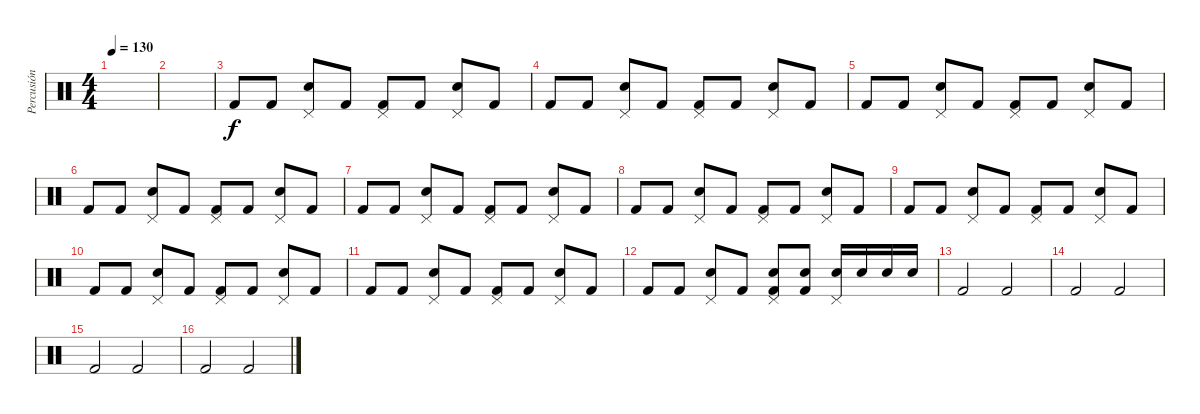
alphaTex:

\track ("Percusión" "Percusión") {instrument percussion}
\staff {score}
\articulation defaults
\ts (4 4)
\tempo 130
\clef neutral
\ks c
|
|
"Kick (hit) 2".8 "Kick (hit) 2".8 ("Electric Snare (hit)" "Pedal Hi-Hat (hit)").8 "Kick (hit) 2".8 ("Kick (hit) 2" "Pedal Hi-Hat (hit)").8 "Kick (hit) 2".8 ("Electric Snare (hit)" "Pedal Hi-Hat (hit)").8 "Kick (hit) 2".8 |
"Kick (hit) 2".8 "Kick (hit) 2".8 ("Electric Snare (hit)" "Pedal Hi-Hat (hit)").8 "Kick (hit) 2".8 ("Kick (hit) 2" "Pedal Hi-Hat (hit)").8 "Kick (hit) 2".8 ("Electric Snare (hit)" "Pedal Hi-Hat (hit)").8 "Kick (hit) 2".8 |
"Kick (hit) 2".8 "Kick (hit) 2".8 ("Electric Snare (hit)" "Pedal Hi-Hat (hit)").8 "Kick (hit) 2".8 ("Kick (hit) 2" "Pedal Hi-Hat (hit)").8 "Kick (hit) 2".8 ("Electric Snare (hit)" "Pedal Hi-Hat (hit)").8 "Kick (hit) 2".8 |
"Kick (hit) 2".8 "Kick (hit) 2".8 ("Electric Snare (hit)" "Pedal Hi-Hat (hit)").8 "Kick (hit) 2".8 ("Kick (hit) 2" "Pedal Hi-Hat (hit)").8 "Kick (hit) 2".8 ("Electric Snare (hit)" "Pedal Hi-Hat (hit)").8 "Kick (hit) 2".8 |
"Kick (hit) 2".8 "Kick (hit) 2".8 ("Electric Snare (hit)" "Pedal Hi-Hat (hit)").8 "Kick (hit) 2".8 ("Kick (hit) 2" "Pedal Hi-Hat (hit)").8 "Kick (hit) 2".8 ("Electric Snare (hit)" "Pedal Hi-Hat (hit)").8 "Kick (hit) 2".8 |
"Kick (hit) 2".8 "Kick (hit) 2".8 ("Electric Snare (hit)" "Pedal Hi-Hat (hit)").8 "Kick (hit) 2".8 ("Kick (hit) 2" "Pedal Hi-Hat (hit)").8 "Kick (hit) 2".8 ("Electric Snare (hit)" "Pedal Hi-Hat (hit)").8 "Kick (hit) 2".8 |
"Kick (hit) 2".8 "Kick (hit) 2".8 ("Electric Snare (hit)" "Pedal Hi-Hat (hit)").8 "Kick (hit) 2".8 ("Kick (hit) 2" "Pedal Hi-Hat (hit)").8 "Kick (hit) 2".8 ("Electric Snare (hit)" "Pedal Hi-Hat (hit)").8 "Kick (hit) 2".8 |
"Kick (hit) 2".8 "Kick (hit) 2".8 ("Electric Snare (hit)" "Pedal Hi-Hat (hit)").8 "Kick (hit) 2".8 ("Kick (hit) 2" "Pedal Hi-Hat (hit)").8 "Kick (hit) 2".8 ("Electric Snare (hit)" "Pedal Hi-Hat (hit)").8 "Kick (hit) 2".8 |
"Kick (hit) 2".8 "Kick (hit) 2".8 ("Electric Snare (hit)" "Pedal Hi-Hat (hit)").8 "Kick (hit) 2".8 ("Kick (hit) 2" "Pedal Hi-Hat (hit)").8 "Kick (hit) 2".8 ("Electric Snare (hit)" "Pedal Hi-Hat (hit)").8 "Kick (hit) 2".8 |
"Kick (hit) 2".8 "Kick (hit) 2".8 ("Electric Snare (hit)" "Pedal Hi-Hat (hit)").8 "Kick (hit) 2".8 ("Kick (hit) 2" "Electric Snare (hit)" "Pedal Hi-Hat (hit)").8 ("Kick (hit) 2" "Electric Snare (hit)").8 ("Electric Snare (hit)" "Pedal Hi-Hat (hit)").16 "Electric Snare (hit)".16 "Electric Snare (hit)".16 "Electric Snare (hit)".16 |
"Kick (hit) 2".2 "Kick (hit) 2".2 |
"Kick (hit) 2".2 "Kick (hit) 2".2 |
"Kick (hit) 2".2 "Kick (hit) 2".2 |
"Kick (hit) 2".2 "Kick (hit) 2".2
